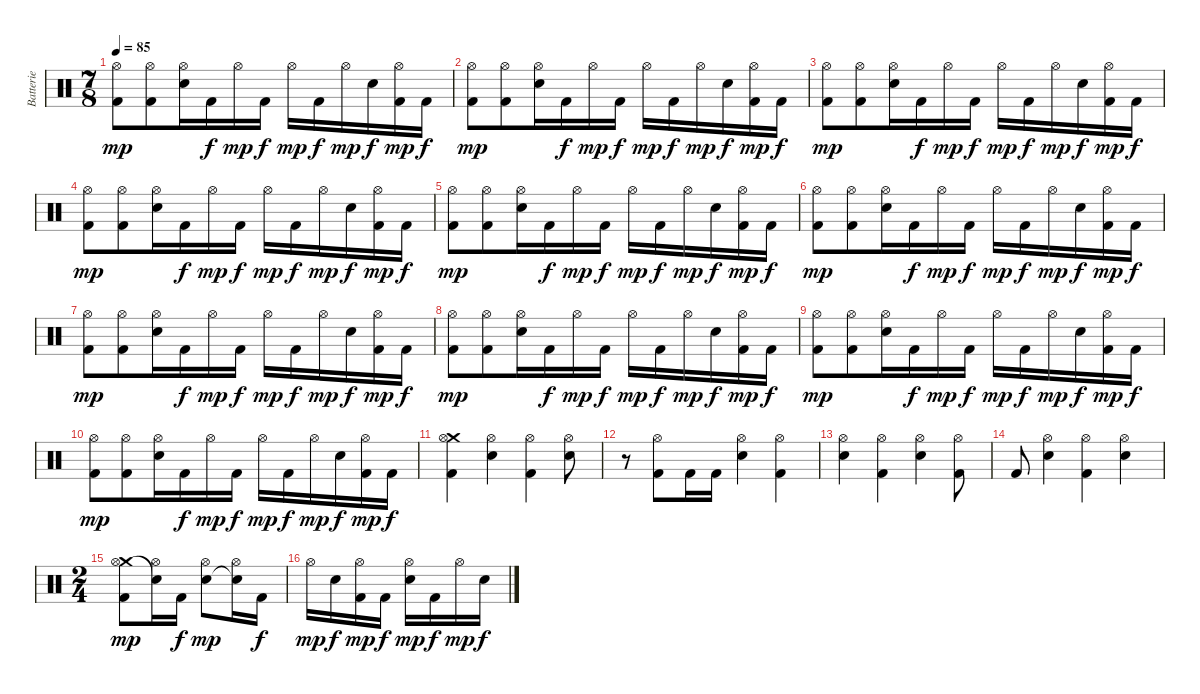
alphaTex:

\track ("Batterie" "Batterie") {instrument percussion}
\staff {score}
\articulation defaults
\ts (7 8)
\tempo 85
\clef neutral
\ks c
("Hi-Hat (open)" "Kick (hit) 2").8{dy mp} ("Hi-Hat (open)" "Kick (hit) 2").8 ("Hi-Hat (open)" "Electric Snare (hit)").16 "Kick (hit) 2".16{dy f} "Hi-Hat (open)".16{dy mp} "Kick (hit) 2".16{dy f} "Hi-Hat (open)".16{dy mp} "Kick (hit) 2".16{dy f} "Hi-Hat (open)".16{dy mp} "Electric Snare (hit)".16{dy f} ("Hi-Hat (open)" "Kick (hit) 2").16{dy mp} "Kick (hit) 2".16{dy f} |
("Hi-Hat (open)" "Kick (hit) 2").8{dy mp} ("Hi-Hat (open)" "Kick (hit) 2").8 ("Hi-Hat (open)" "Electric Snare (hit)").16 "Kick (hit) 2".16{dy f} "Hi-Hat (open)".16{dy mp} "Kick (hit) 2".16{dy f} "Hi-Hat (open)".16{dy mp} "Kick (hit) 2".16{dy f} "Hi-Hat (open)".16{dy mp} "Electric Snare (hit)".16{dy f} ("Hi-Hat (open)" "Kick (hit) 2").16{dy mp} "Kick (hit) 2".16{dy f} |
("Hi-Hat (open)" "Kick (hit) 2").8{dy mp} ("Hi-Hat (open)" "Kick (hit) 2").8 ("Hi-Hat (open)" "Electric Snare (hit)").16 "Kick (hit) 2".16{dy f} "Hi-Hat (open)".16{dy mp} "Kick (hit) 2".16{dy f} "Hi-Hat (open)".16{dy mp} "Kick (hit) 2".16{dy f} "Hi-Hat (open)".16{dy mp} "Electric Snare (hit)".16{dy f} ("Hi-Hat (open)" "Kick (hit) 2").16{dy mp} "Kick (hit) 2".16{dy f} |
("Hi-Hat (open)" "Kick (hit) 2").8{dy mp} ("Hi-Hat (open)" "Kick (hit) 2").8 ("Hi-Hat (open)" "Electric Snare (hit)").16 "Kick (hit) 2".16{dy f} "Hi-Hat (open)".16{dy mp} "Kick (hit) 2".16{dy f} "Hi-Hat (open)".16{dy mp} "Kick (hit) 2".16{dy f} "Hi-Hat (open)".16{dy mp} "Electric Snare (hit)".16{dy f} ("Hi-Hat (open)" "Kick (hit) 2").16{dy mp} "Kick (hit) 2".16{dy f} |
("Hi-Hat (open)" "Kick (hit) 2").8{dy mp} ("Hi-Hat (open)" "Kick (hit) 2").8 ("Hi-Hat (open)" "Electric Snare (hit)").16 "Kick (hit) 2".16{dy f} "Hi-Hat (open)".16{dy mp} "Kick (hit) 2".16{dy f} "Hi-Hat (open)".16{dy mp} "Kick (hit) 2".16{dy f} "Hi-Hat (open)".16{dy mp} "Electric Snare (hit)".16{dy f} ("Hi-Hat (open)" "Kick (hit) 2").16{dy mp} "Kick (hit) 2".16{dy f} |
("Hi-Hat (open)" "Kick (hit) 2").8{dy mp} ("Hi-Hat (open)" "Kick (hit) 2").8 ("Hi-Hat (open)" "Electric Snare (hit)").16 "Kick (hit) 2".16{dy f} "Hi-Hat (open)".16{dy mp} "Kick (hit) 2".16{dy f} "Hi-Hat (open)".16{dy mp} "Kick (hit) 2".16{dy f} "Hi-Hat (open)".16{dy mp} "Electric Snare (hit)".16{dy f} ("Hi-Hat (open)" "Kick (hit) 2").16{dy mp} "Kick (hit) 2".16{dy f} |
("Hi-Hat (open)" "Kick (hit) 2").8{dy mp} ("Hi-Hat (open)" "Kick (hit) 2").8 ("Hi-Hat (open)" "Electric Snare (hit)").16 "Kick (hit) 2".16{dy f} "Hi-Hat (open)".16{dy mp} "Kick (hit) 2".16{dy f} "Hi-Hat (open)".16{dy mp} "Kick (hit) 2".16{dy f} "Hi-Hat (open)".16{dy mp} "Electric Snare (hit)".16{dy f} ("Hi-Hat (open)" "Kick (hit) 2").16{dy mp} "Kick (hit) 2".16{dy f} |
("Hi-Hat (open)" "Kick (hit) 2").8{dy mp} ("Hi-Hat (open)" "Kick (hit) 2").8 ("Hi-Hat (open)" "Electric Snare (hit)").16 "Kick (hit) 2".16{dy f} "Hi-Hat (open)".16{dy mp} "Kick (hit) 2".16{dy f} "Hi-Hat (open)".16{dy mp} "Kick (hit) 2".16{dy f} "Hi-Hat (open)".16{dy mp} "Electric Snare (hit)".16{dy f} ("Hi-Hat (open)" "Kick (hit) 2").16{dy mp} "Kick (hit) 2".16{dy f} |
("Hi-Hat (open)" "Kick (hit) 2").8{dy mp} ("Hi-Hat (open)" "Kick (hit) 2").8 ("Hi-Hat (open)" "Electric Snare (hit)").16 "Kick (hit) 2".16{dy f} "Hi-Hat (open)".16{dy mp} "Kick (hit) 2".16{dy f} "Hi-Hat (open)".16{dy mp} "Kick (hit) 2".16{dy f} "Hi-Hat (open)".16{dy mp} "Electric Snare (hit)".16{dy f} ("Hi-Hat (open)" "Kick (hit) 2").16{dy mp} "Kick (hit) 2".16{dy f} |
("Hi-Hat (open)" "Kick (hit) 2").8{dy mp} ("Hi-Hat (open)" "Kick (hit) 2").8 ("Hi-Hat (open)" "Electric Snare (hit)").16 "Kick (hit) 2".16{dy f} "Hi-Hat (open)".16{dy mp} "Kick (hit) 2".16{dy f} "Hi-Hat (open)".16{dy mp} "Kick (hit) 2".16{dy f} "Hi-Hat (open)".16{dy mp} "Electric Snare (hit)".16{dy f} ("Hi-Hat (open)" "Kick (hit) 2").16{dy mp} "Kick (hit) 2".16{dy f} |
("Crash medium (hit)" "Hi-Hat (open)" "Kick (hit) 2").4 ("Electric Snare (hit)" "Hi-Hat (open)").4 ("Hi-Hat (open)" "Kick (hit) 2").4 ("Electric Snare (hit)" "Hi-Hat (open)").8 |
r.8 ("Hi-Hat (open)" "Kick (hit) 2").8 "Kick (hit) 2".16 "Kick (hit) 2".16 ("Electric Snare (hit)" "Hi-Hat (open)").4 ("Hi-Hat (open)" "Kick (hit) 2").4 |
("Electric Snare (hit)" "Hi-Hat (open)").4 ("Hi-Hat (open)" "Kick (hit) 2").4 ("Electric Snare (hit)" "Hi-Hat (open)").4 ("Hi-Hat (open)" "Kick (hit) 2").8 |
"Kick (hit) 2".8 ("Electric Snare (hit)" "Hi-Hat (open)").4 ("Hi-Hat (open)" "Kick (hit) 2").4 ("Electric Snare (hit)" "Hi-Hat (open)").4 |
\ts (2 4)
("Crash medium (hit)" "Hi-Hat (open)" "Kick (hit) 2").8{dy mp} ("Hi-Hat (open)" "Snare (hit)"{t}).16 "Kick (hit) 2".16{dy f} ("Electric Snare (hit)" "Hi-Hat (open)").8{dy mp} ("Snare (hit)"{t} "Hi-Hat (open)").16 "Kick (hit) 2".16{dy f} |
"Hi-Hat (open)".16{dy mp} "Electric Snare (hit)".16{dy f} ("Hi-Hat (open)" "Kick (hit) 2").16{dy mp} "Kick (hit) 2".16{dy f} ("Electric Snare (hit)" "Hi-Hat (open)").16{dy mp} "Kick (hit) 2".16{dy f} "Hi-Hat (open)".16{dy mp} "Electric Snare (hit)".16{dy f}
